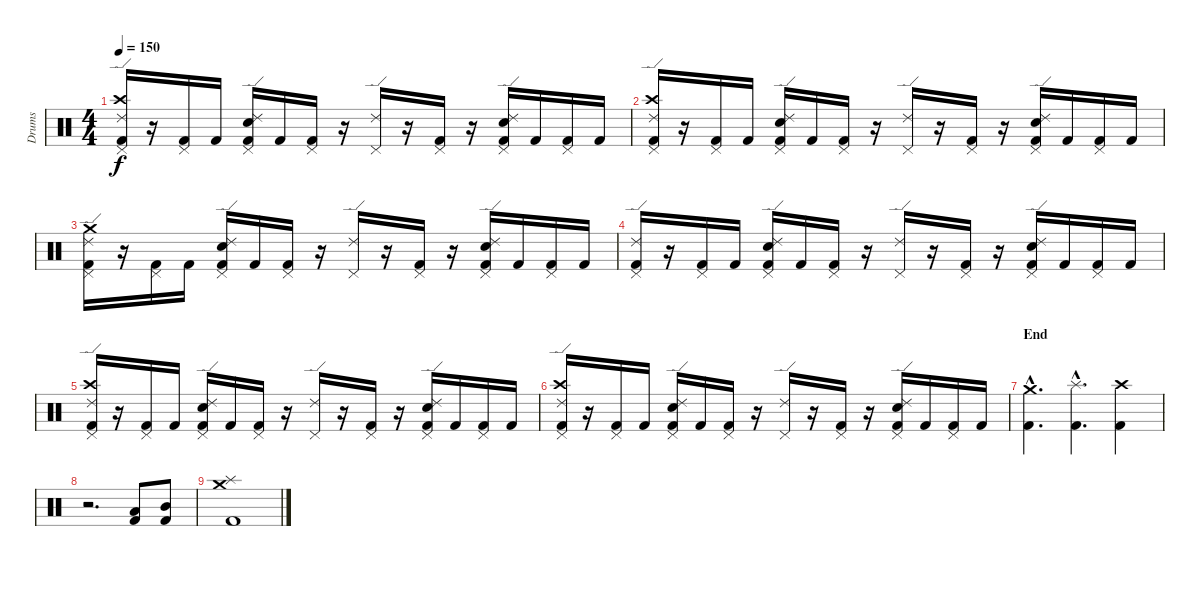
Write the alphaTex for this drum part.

\track ("Drums" "Drums") {instrument percussion}
\staff {score}
\articulation defaults
\ts (4 4)
\tempo 150
\clef neutral
\ks c
("Kick (hit) 2" "Pedal Hi-Hat (hit)" "Crash high (hit)" "Ride (edge) 2").16{dy f} r.16 ("Kick (hit) 2" "Pedal Hi-Hat (hit)").16 "Kick (hit) 2".16 ("Kick (hit) 2" "Snare (hit) 2" "Pedal Hi-Hat (hit)" "Ride (edge) 2").16 "Kick (hit) 2".16 ("Kick (hit) 2" "Pedal Hi-Hat (hit)").16 r.16 ("Pedal Hi-Hat (hit)" "Ride (edge) 2").16 r.16 ("Kick (hit) 2" "Pedal Hi-Hat (hit)").16 r.16 ("Kick (hit) 2" "Snare (hit) 2" "Pedal Hi-Hat (hit)" "Ride (edge) 2").16 "Kick (hit) 2".16 ("Kick (hit) 2" "Pedal Hi-Hat (hit)").16 "Kick (hit) 2".16 |
("Kick (hit) 2" "Pedal Hi-Hat (hit)" "Crash high (hit)" "Ride (edge) 2").16 r.16 ("Kick (hit) 2" "Pedal Hi-Hat (hit)").16 "Kick (hit) 2".16 ("Kick (hit) 2" "Snare (hit) 2" "Pedal Hi-Hat (hit)" "Ride (edge) 2").16 "Kick (hit) 2".16 ("Kick (hit) 2" "Pedal Hi-Hat (hit)").16 r.16 ("Pedal Hi-Hat (hit)" "Ride (edge) 2").16 r.16 ("Kick (hit) 2" "Pedal Hi-Hat (hit)").16 r.16 ("Kick (hit) 2" "Snare (hit) 2" "Pedal Hi-Hat (hit)" "Ride (edge) 2").16 "Kick (hit) 2".16 ("Kick (hit) 2" "Pedal Hi-Hat (hit)").16 "Kick (hit) 2".16 |
("Kick (hit) 2" "Pedal Hi-Hat (hit)" "Crash medium (hit)" "Ride (edge) 2").16 r.16 ("Kick (hit) 2" "Pedal Hi-Hat (hit)").16 "Kick (hit) 2".16 ("Kick (hit) 2" "Snare (hit) 2" "Pedal Hi-Hat (hit)" "Ride (edge) 2").16 "Kick (hit) 2".16 ("Kick (hit) 2" "Pedal Hi-Hat (hit)").16 r.16 ("Pedal Hi-Hat (hit)" "Ride (edge) 2").16 r.16 ("Kick (hit) 2" "Pedal Hi-Hat (hit)").16 r.16 ("Kick (hit) 2" "Snare (hit) 2" "Pedal Hi-Hat (hit)" "Ride (edge) 2").16 "Kick (hit) 2".16 ("Kick (hit) 2" "Pedal Hi-Hat (hit)").16 "Kick (hit) 2".16 |
("Kick (hit) 2" "Pedal Hi-Hat (hit)" "Ride (edge) 2").16 r.16 ("Kick (hit) 2" "Pedal Hi-Hat (hit)").16 "Kick (hit) 2".16 ("Kick (hit) 2" "Snare (hit) 2" "Pedal Hi-Hat (hit)" "Ride (edge) 2").16 "Kick (hit) 2".16 ("Kick (hit) 2" "Pedal Hi-Hat (hit)").16 r.16 ("Pedal Hi-Hat (hit)" "Ride (edge) 2").16 r.16 ("Kick (hit) 2" "Pedal Hi-Hat (hit)").16 r.16 ("Kick (hit) 2" "Snare (hit) 2" "Pedal Hi-Hat (hit)" "Ride (edge) 2").16 "Kick (hit) 2".16 ("Kick (hit) 2" "Pedal Hi-Hat (hit)").16 "Kick (hit) 2".16 |
("Kick (hit) 2" "Pedal Hi-Hat (hit)" "Crash high (hit)" "Ride (edge) 2").16 r.16 ("Kick (hit) 2" "Pedal Hi-Hat (hit)").16 "Kick (hit) 2".16 ("Kick (hit) 2" "Snare (hit) 2" "Pedal Hi-Hat (hit)" "Ride (edge) 2").16 "Kick (hit) 2".16 ("Kick (hit) 2" "Pedal Hi-Hat (hit)").16 r.16 ("Pedal Hi-Hat (hit)" "Ride (edge) 2").16 r.16 ("Kick (hit) 2" "Pedal Hi-Hat (hit)").16 r.16 ("Kick (hit) 2" "Snare (hit) 2" "Pedal Hi-Hat (hit)" "Ride (edge) 2").16 "Kick (hit) 2".16 ("Kick (hit) 2" "Pedal Hi-Hat (hit)").16 "Kick (hit) 2".16 |
("Kick (hit) 2" "Pedal Hi-Hat (hit)" "Crash high (hit)" "Ride (edge) 2").16 r.16 ("Kick (hit) 2" "Pedal Hi-Hat (hit)").16 "Kick (hit) 2".16 ("Kick (hit) 2" "Snare (hit) 2" "Pedal Hi-Hat (hit)" "Ride (edge) 2").16 "Kick (hit) 2".16 ("Kick (hit) 2" "Pedal Hi-Hat (hit)").16 r.16 ("Pedal Hi-Hat (hit)" "Ride (edge) 2").16 r.16 ("Kick (hit) 2" "Pedal Hi-Hat (hit)").16 r.16 ("Kick (hit) 2" "Snare (hit) 2" "Pedal Hi-Hat (hit)" "Ride (edge) 2").16 "Kick (hit) 2".16 ("Kick (hit) 2" "Pedal Hi-Hat (hit)").16 "Kick (hit) 2".16 |
\section ("" "End")
("Kick (hit) 2"{hac} "Crash medium (hit)"{hac}).4{d} ("Kick (hit) 2"{hac} "Splash (hit)"{hac}).4{d} ("Kick (hit) 2" "Crash high (hit)").4 |
r.2{d} ("Kick (hit) 2" "Low Tom (hit)").8 ("Kick (hit) 2" "Mid Tom (hit)").8 |
("Kick (hit) 2" "Splash (hit)" "Crash medium (hit)").1
